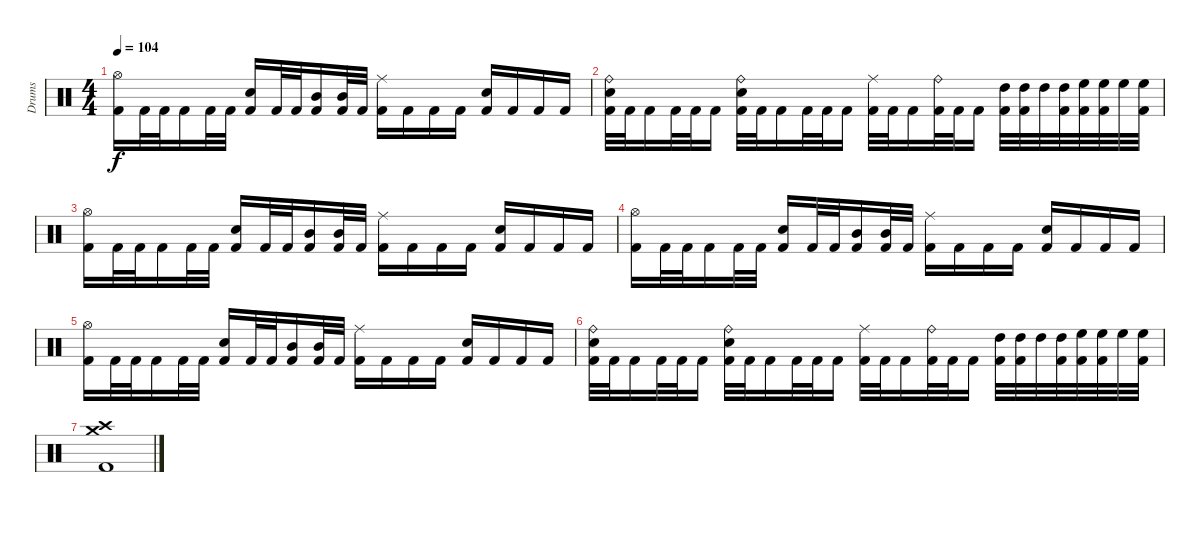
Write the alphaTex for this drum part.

\track ("Drums" "Drums") {instrument percussion}
\staff {score}
\articulation defaults
\ts (4 4)
\tempo 104
\clef neutral
\ks c
("Hi-Hat (open)" "Kick (hit) 2").16{dy f} "Kick (hit) 2".32 "Kick (hit) 2".32 "Kick (hit) 2".16 "Kick (hit) 2".32 "Kick (hit) 2".32 ("Snare (hit) 2" "Kick (hit) 2").16 "Kick (hit) 2".32 "Kick (hit) 2".32 ("Mid Tom (hit)" "Kick (hit) 2").16 ("Mid Tom (hit)" "Kick (hit) 2").32 "Kick (hit) 2".32 ("Ride (middle)" "Kick (hit) 2").16 "Kick (hit) 2".16 "Kick (hit) 2".16 "Kick (hit) 2".16 ("Snare (hit) 2" "Kick (hit) 2").16 "Kick (hit) 2".16 "Kick (hit) 2".16 "Kick (hit) 2".16 |
("Ride (bell)" "Snare (hit) 2" "Kick (hit) 2").32 "Kick (hit) 2".32 "Kick (hit) 2".16 "Kick (hit) 2".32 "Kick (hit) 2".32 "Kick (hit) 2".16 ("Ride (bell)" "Snare (hit) 2" "Kick (hit) 2").32 "Kick (hit) 2".32 "Kick (hit) 2".16 "Kick (hit) 2".32 "Kick (hit) 2".32 "Kick (hit) 2".16 ("Ride (middle)" "Kick (hit) 2").32 "Kick (hit) 2".32 "Kick (hit) 2".16 ("Ride (bell)" "Kick (hit) 2").32 "Kick (hit) 2".32 "Kick (hit) 2".16 ("High Tom (hit)" "Kick (hit) 2").32 ("High Tom (hit)" "Kick (hit) 2").32 "High Tom (hit)".32 ("High Tom (hit)" "Kick (hit) 2").32 ("High Floor Tom (hit)" "Kick (hit) 2").32 ("High Floor Tom (hit)" "Kick (hit) 2").32 "High Floor Tom (hit)".32 ("High Floor Tom (hit)" "Kick (hit) 2").32 |
("Hi-Hat (open)" "Kick (hit) 2").16 "Kick (hit) 2".32 "Kick (hit) 2".32 "Kick (hit) 2".16 "Kick (hit) 2".32 "Kick (hit) 2".32 ("Snare (hit) 2" "Kick (hit) 2").16 "Kick (hit) 2".32 "Kick (hit) 2".32 ("Mid Tom (hit)" "Kick (hit) 2").16 ("Mid Tom (hit)" "Kick (hit) 2").32 "Kick (hit) 2".32 ("Ride (middle)" "Kick (hit) 2").16 "Kick (hit) 2".16 "Kick (hit) 2".16 "Kick (hit) 2".16 ("Snare (hit) 2" "Kick (hit) 2").16 "Kick (hit) 2".16 "Kick (hit) 2".16 "Kick (hit) 2".16 |
("Hi-Hat (open)" "Kick (hit) 2").16 "Kick (hit) 2".32 "Kick (hit) 2".32 "Kick (hit) 2".16 "Kick (hit) 2".32 "Kick (hit) 2".32 ("Snare (hit) 2" "Kick (hit) 2").16 "Kick (hit) 2".32 "Kick (hit) 2".32 ("Mid Tom (hit)" "Kick (hit) 2").16 ("Mid Tom (hit)" "Kick (hit) 2").32 "Kick (hit) 2".32 ("Ride (middle)" "Kick (hit) 2").16 "Kick (hit) 2".16 "Kick (hit) 2".16 "Kick (hit) 2".16 ("Snare (hit) 2" "Kick (hit) 2").16 "Kick (hit) 2".16 "Kick (hit) 2".16 "Kick (hit) 2".16 |
("Hi-Hat (open)" "Kick (hit) 2").16 "Kick (hit) 2".32 "Kick (hit) 2".32 "Kick (hit) 2".16 "Kick (hit) 2".32 "Kick (hit) 2".32 ("Snare (hit) 2" "Kick (hit) 2").16 "Kick (hit) 2".32 "Kick (hit) 2".32 ("Mid Tom (hit)" "Kick (hit) 2").16 ("Mid Tom (hit)" "Kick (hit) 2").32 "Kick (hit) 2".32 ("Ride (middle)" "Kick (hit) 2").16 "Kick (hit) 2".16 "Kick (hit) 2".16 "Kick (hit) 2".16 ("Snare (hit) 2" "Kick (hit) 2").16 "Kick (hit) 2".16 "Kick (hit) 2".16 "Kick (hit) 2".16 |
("Ride (bell)" "Snare (hit) 2" "Kick (hit) 2").32 "Kick (hit) 2".32 "Kick (hit) 2".16 "Kick (hit) 2".32 "Kick (hit) 2".32 "Kick (hit) 2".16 ("Ride (bell)" "Snare (hit) 2" "Kick (hit) 2").32 "Kick (hit) 2".32 "Kick (hit) 2".16 "Kick (hit) 2".32 "Kick (hit) 2".32 "Kick (hit) 2".16 ("Ride (middle)" "Kick (hit) 2").32 "Kick (hit) 2".32 "Kick (hit) 2".16 ("Ride (bell)" "Kick (hit) 2").32 "Kick (hit) 2".32 "Kick (hit) 2".16 ("High Tom (hit)" "Kick (hit) 2").32 ("High Tom (hit)" "Kick (hit) 2").32 "High Tom (hit)".32 ("High Tom (hit)" "Kick (hit) 2").32 ("High Floor Tom (hit)" "Kick (hit) 2").32 ("High Floor Tom (hit)" "Kick (hit) 2").32 "High Floor Tom (hit)".32 ("High Floor Tom (hit)" "Kick (hit) 2").32 |
("Crash high (hit)" "Crash medium (hit)" "Kick (hit) 2").1
